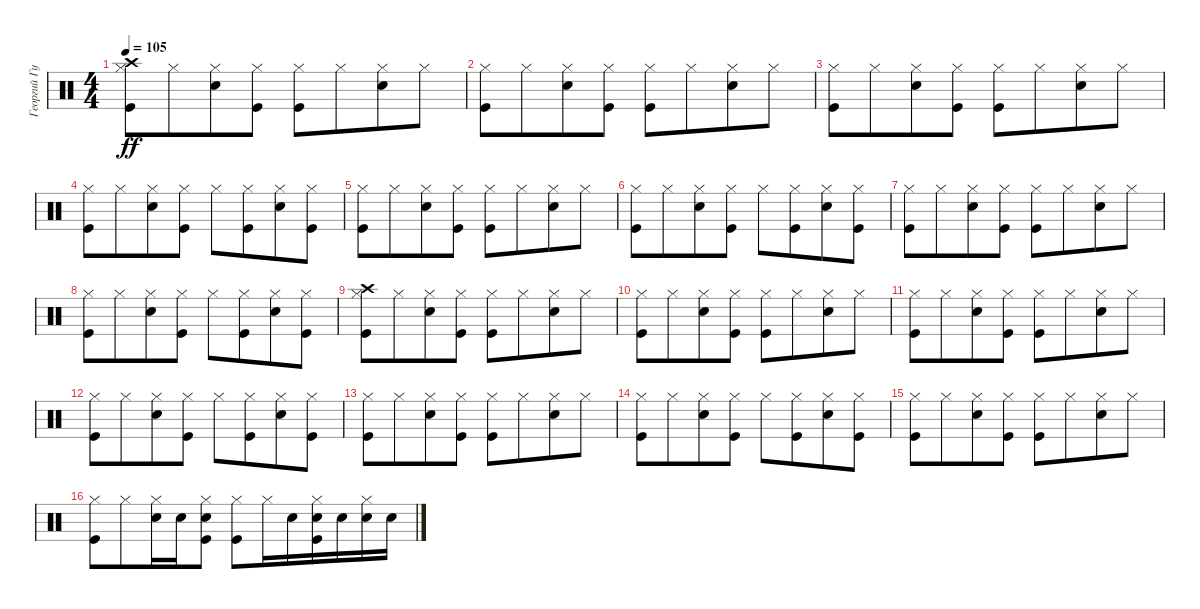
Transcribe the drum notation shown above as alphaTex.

\track ("Георгий Гурьянов" "Георгий Гу") {instrument percussion}
\staff {score}
\articulation defaults
\ts (4 4)
\tempo 105
\clef neutral
\ks c
("Hi-Hat (closed)" "Crash high (hit)" "Kick (hit)").8{dy ff} "Hi-Hat (closed)".8{beam merge} ("Hi-Hat (closed)" "Snare (hit) 2").8 ("Hi-Hat (closed)" "Kick (hit)").8 ("Hi-Hat (closed)" "Kick (hit)").8 "Hi-Hat (closed)".8{beam merge} ("Hi-Hat (closed)" "Snare (hit) 2").8 "Hi-Hat (closed)".8 |
("Hi-Hat (closed)" "Kick (hit)").8 "Hi-Hat (closed)".8{beam merge} ("Hi-Hat (closed)" "Snare (hit) 2").8 ("Hi-Hat (closed)" "Kick (hit)").8 ("Hi-Hat (closed)" "Kick (hit)").8 "Hi-Hat (closed)".8{beam merge} ("Hi-Hat (closed)" "Snare (hit) 2").8 "Hi-Hat (closed)".8 |
("Hi-Hat (closed)" "Kick (hit)").8 "Hi-Hat (closed)".8{beam merge} ("Hi-Hat (closed)" "Snare (hit) 2").8 ("Hi-Hat (closed)" "Kick (hit)").8 ("Hi-Hat (closed)" "Kick (hit)").8 "Hi-Hat (closed)".8{beam merge} ("Hi-Hat (closed)" "Snare (hit) 2").8 "Hi-Hat (closed)".8 |
("Hi-Hat (closed)" "Kick (hit)").8 "Hi-Hat (closed)".8{beam merge} ("Hi-Hat (closed)" "Snare (hit) 2").8 ("Hi-Hat (closed)" "Kick (hit)").8 "Hi-Hat (closed)".8 ("Hi-Hat (closed)" "Kick (hit)").8{beam merge} ("Hi-Hat (closed)" "Snare (hit) 2").8 ("Hi-Hat (closed)" "Kick (hit)").8 |
("Hi-Hat (closed)" "Kick (hit)").8 "Hi-Hat (closed)".8{beam merge} ("Hi-Hat (closed)" "Snare (hit) 2").8 ("Hi-Hat (closed)" "Kick (hit)").8 ("Hi-Hat (closed)" "Kick (hit)").8 "Hi-Hat (closed)".8{beam merge} ("Hi-Hat (closed)" "Snare (hit) 2").8 "Hi-Hat (closed)".8 |
("Hi-Hat (closed)" "Kick (hit)").8 "Hi-Hat (closed)".8{beam merge} ("Hi-Hat (closed)" "Snare (hit) 2").8 ("Hi-Hat (closed)" "Kick (hit)").8 "Hi-Hat (closed)".8 ("Hi-Hat (closed)" "Kick (hit)").8{beam merge} ("Hi-Hat (closed)" "Snare (hit) 2").8 ("Hi-Hat (closed)" "Kick (hit)").8 |
("Hi-Hat (closed)" "Kick (hit)").8 "Hi-Hat (closed)".8{beam merge} ("Hi-Hat (closed)" "Snare (hit) 2").8 ("Hi-Hat (closed)" "Kick (hit)").8 ("Hi-Hat (closed)" "Kick (hit)").8 "Hi-Hat (closed)".8{beam merge} ("Hi-Hat (closed)" "Snare (hit) 2").8 "Hi-Hat (closed)".8 |
("Hi-Hat (closed)" "Kick (hit)").8 "Hi-Hat (closed)".8{beam merge} ("Hi-Hat (closed)" "Snare (hit) 2").8 ("Hi-Hat (closed)" "Kick (hit)").8 "Hi-Hat (closed)".8 ("Hi-Hat (closed)" "Kick (hit)").8{beam merge} ("Hi-Hat (closed)" "Snare (hit) 2").8 ("Hi-Hat (closed)" "Kick (hit)").8 |
("Hi-Hat (closed)" "Crash high (hit)" "Kick (hit)").8 "Hi-Hat (closed)".8{beam merge} ("Hi-Hat (closed)" "Snare (hit) 2").8 ("Hi-Hat (closed)" "Kick (hit)").8 ("Hi-Hat (closed)" "Kick (hit)").8 "Hi-Hat (closed)".8{beam merge} ("Hi-Hat (closed)" "Snare (hit) 2").8 "Hi-Hat (closed)".8 |
("Hi-Hat (closed)" "Kick (hit)").8 "Hi-Hat (closed)".8{beam merge} ("Hi-Hat (closed)" "Snare (hit) 2").8 ("Hi-Hat (closed)" "Kick (hit)").8 ("Hi-Hat (closed)" "Kick (hit)").8 "Hi-Hat (closed)".8{beam merge} ("Hi-Hat (closed)" "Snare (hit) 2").8 "Hi-Hat (closed)".8 |
("Hi-Hat (closed)" "Kick (hit)").8 "Hi-Hat (closed)".8{beam merge} ("Hi-Hat (closed)" "Snare (hit) 2").8 ("Hi-Hat (closed)" "Kick (hit)").8 ("Hi-Hat (closed)" "Kick (hit)").8 "Hi-Hat (closed)".8{beam merge} ("Hi-Hat (closed)" "Snare (hit) 2").8 "Hi-Hat (closed)".8 |
("Hi-Hat (closed)" "Kick (hit)").8 "Hi-Hat (closed)".8{beam merge} ("Hi-Hat (closed)" "Snare (hit) 2").8 ("Hi-Hat (closed)" "Kick (hit)").8 "Hi-Hat (closed)".8 ("Hi-Hat (closed)" "Kick (hit)").8{beam merge} ("Hi-Hat (closed)" "Snare (hit) 2").8 ("Hi-Hat (closed)" "Kick (hit)").8 |
("Hi-Hat (closed)" "Kick (hit)").8 "Hi-Hat (closed)".8{beam merge} ("Hi-Hat (closed)" "Snare (hit) 2").8 ("Hi-Hat (closed)" "Kick (hit)").8 ("Hi-Hat (closed)" "Kick (hit)").8 "Hi-Hat (closed)".8{beam merge} ("Hi-Hat (closed)" "Snare (hit) 2").8 "Hi-Hat (closed)".8 |
("Hi-Hat (closed)" "Kick (hit)").8 "Hi-Hat (closed)".8{beam merge} ("Hi-Hat (closed)" "Snare (hit) 2").8 ("Hi-Hat (closed)" "Kick (hit)").8 "Hi-Hat (closed)".8 ("Hi-Hat (closed)" "Kick (hit)").8{beam merge} ("Hi-Hat (closed)" "Snare (hit) 2").8 ("Hi-Hat (closed)" "Kick (hit)").8 |
("Hi-Hat (closed)" "Kick (hit)").8 "Hi-Hat (closed)".8{beam merge} ("Hi-Hat (closed)" "Snare (hit) 2").8 ("Hi-Hat (closed)" "Kick (hit)").8 ("Hi-Hat (closed)" "Kick (hit)").8 "Hi-Hat (closed)".8{beam merge} ("Hi-Hat (closed)" "Snare (hit) 2").8 "Hi-Hat (closed)".8 |
("Hi-Hat (closed)" "Kick (hit)").8 "Hi-Hat (closed)".8{beam merge} ("Hi-Hat (closed)" "Snare (hit) 2").16{beam merge} "Snare (hit) 2".16 ("Hi-Hat (closed)" "Snare (hit) 2" "Kick (hit)").8 ("Hi-Hat (closed)" "Kick (hit)").8 "Hi-Hat (closed)".16 "Snare (hit) 2".16{beam merge} ("Hi-Hat (closed)" "Snare (hit) 2" "Kick (hit)").16{beam merge} "Snare (hit) 2".16 ("Hi-Hat (closed)" "Snare (hit) 2").16 "Snare (hit) 2".16
